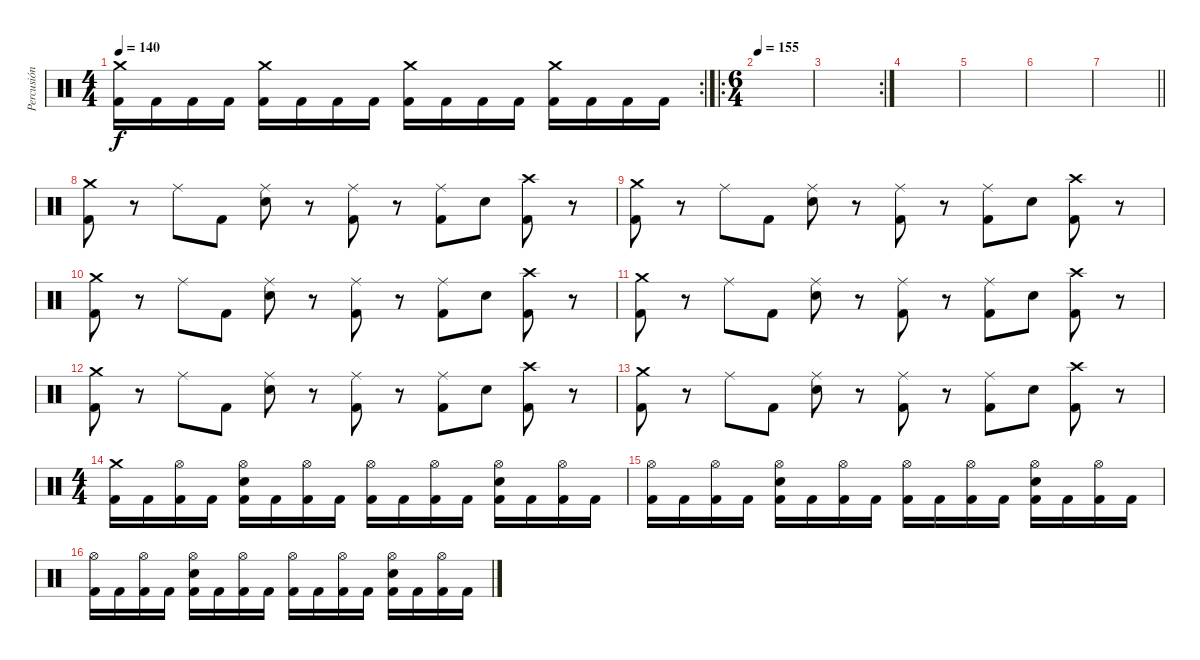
\track ("Percusión" "Percusión") {instrument percussion}
\staff {score}
\articulation defaults
\rc 2
\ts (4 4)
\tempo 140
\clef neutral
\ks c
("Crash medium (hit)" "Kick (hit) 2").16{dy f} "Kick (hit) 2".16 "Kick (hit) 2".16 "Kick (hit) 2".16 ("Crash medium (hit)" "Kick (hit) 2").16 "Kick (hit) 2".16 "Kick (hit) 2".16 "Kick (hit) 2".16 ("Crash medium (hit)" "Kick (hit) 2").16 "Kick (hit) 2".16 "Kick (hit) 2".16 "Kick (hit) 2".16 ("Crash medium (hit)" "Kick (hit) 2").16 "Kick (hit) 2".16 "Kick (hit) 2".16 "Kick (hit) 2".16 |
\ro
\ts (6 4)
\tempo 155
|
\rc 2
|
|
|
|
\barLineRight lightlight
|
("Crash medium (hit)" "Kick (hit) 2").8 r.8 "Ride (middle)".8 "Kick (hit) 2".8 ("Ride (middle)" "Electric Snare (hit)").8 r.8 ("Ride (middle)" "Kick (hit) 2").8 r.8 ("Ride (middle)" "Kick (hit) 2").8 "Electric Snare (hit)".8 ("Crash high (hit)" "Kick (hit) 2").8 r.8 |
("Crash medium (hit)" "Kick (hit) 2").8 r.8 "Ride (middle)".8 "Kick (hit) 2".8 ("Ride (middle)" "Electric Snare (hit)").8 r.8 ("Ride (middle)" "Kick (hit) 2").8 r.8 ("Ride (middle)" "Kick (hit) 2").8 "Electric Snare (hit)".8 ("Crash high (hit)" "Kick (hit) 2").8 r.8 |
("Crash medium (hit)" "Kick (hit) 2").8 r.8 "Ride (middle)".8 "Kick (hit) 2".8 ("Ride (middle)" "Electric Snare (hit)").8 r.8 ("Ride (middle)" "Kick (hit) 2").8 r.8 ("Ride (middle)" "Kick (hit) 2").8 "Electric Snare (hit)".8 ("Crash high (hit)" "Kick (hit) 2").8 r.8 |
("Crash medium (hit)" "Kick (hit) 2").8 r.8 "Ride (middle)".8 "Kick (hit) 2".8 ("Ride (middle)" "Electric Snare (hit)").8 r.8 ("Ride (middle)" "Kick (hit) 2").8 r.8 ("Ride (middle)" "Kick (hit) 2").8 "Electric Snare (hit)".8 ("Crash high (hit)" "Kick (hit) 2").8 r.8 |
("Crash medium (hit)" "Kick (hit) 2").8 r.8 "Ride (middle)".8 "Kick (hit) 2".8 ("Ride (middle)" "Electric Snare (hit)").8 r.8 ("Ride (middle)" "Kick (hit) 2").8 r.8 ("Ride (middle)" "Kick (hit) 2").8 "Electric Snare (hit)".8 ("Crash high (hit)" "Kick (hit) 2").8 r.8 |
("Crash medium (hit)" "Kick (hit) 2").8 r.8 "Ride (middle)".8 "Kick (hit) 2".8 ("Ride (middle)" "Electric Snare (hit)").8 r.8 ("Ride (middle)" "Kick (hit) 2").8 r.8 ("Ride (middle)" "Kick (hit) 2").8 "Electric Snare (hit)".8 ("Crash high (hit)" "Kick (hit) 2").8 r.8 |
\ts (4 4)
("Crash medium (hit)" "Kick (hit) 2").16 "Kick (hit) 2".16 ("Hi-Hat (open)" "Kick (hit) 2").16 "Kick (hit) 2".16 ("Hi-Hat (open)" "Electric Snare (hit)" "Kick (hit) 2").16 "Kick (hit) 2".16 ("Hi-Hat (open)" "Kick (hit) 2").16 "Kick (hit) 2".16 ("Hi-Hat (open)" "Kick (hit) 2").16 "Kick (hit) 2".16 ("Hi-Hat (open)" "Kick (hit) 2").16 "Kick (hit) 2".16 ("Hi-Hat (open)" "Electric Snare (hit)" "Kick (hit) 2").16 "Kick (hit) 2".16 ("Hi-Hat (open)" "Kick (hit) 2").16 "Kick (hit) 2".16 |
("Hi-Hat (open)" "Kick (hit) 2").16 "Kick (hit) 2".16 ("Hi-Hat (open)" "Kick (hit) 2").16 "Kick (hit) 2".16 ("Hi-Hat (open)" "Electric Snare (hit)" "Kick (hit) 2").16 "Kick (hit) 2".16 ("Hi-Hat (open)" "Kick (hit) 2").16 "Kick (hit) 2".16 ("Hi-Hat (open)" "Kick (hit) 2").16 "Kick (hit) 2".16 ("Hi-Hat (open)" "Kick (hit) 2").16 "Kick (hit) 2".16 ("Hi-Hat (open)" "Electric Snare (hit)" "Kick (hit) 2").16 "Kick (hit) 2".16 ("Hi-Hat (open)" "Kick (hit) 2").16 "Kick (hit) 2".16 |
("Hi-Hat (open)" "Kick (hit) 2").16 "Kick (hit) 2".16 ("Hi-Hat (open)" "Kick (hit) 2").16 "Kick (hit) 2".16 ("Hi-Hat (open)" "Electric Snare (hit)" "Kick (hit) 2").16 "Kick (hit) 2".16 ("Hi-Hat (open)" "Kick (hit) 2").16 "Kick (hit) 2".16 ("Hi-Hat (open)" "Kick (hit) 2").16 "Kick (hit) 2".16 ("Hi-Hat (open)" "Kick (hit) 2").16 "Kick (hit) 2".16 ("Hi-Hat (open)" "Electric Snare (hit)" "Kick (hit) 2").16 "Kick (hit) 2".16 ("Hi-Hat (open)" "Kick (hit) 2").16 "Kick (hit) 2".16
